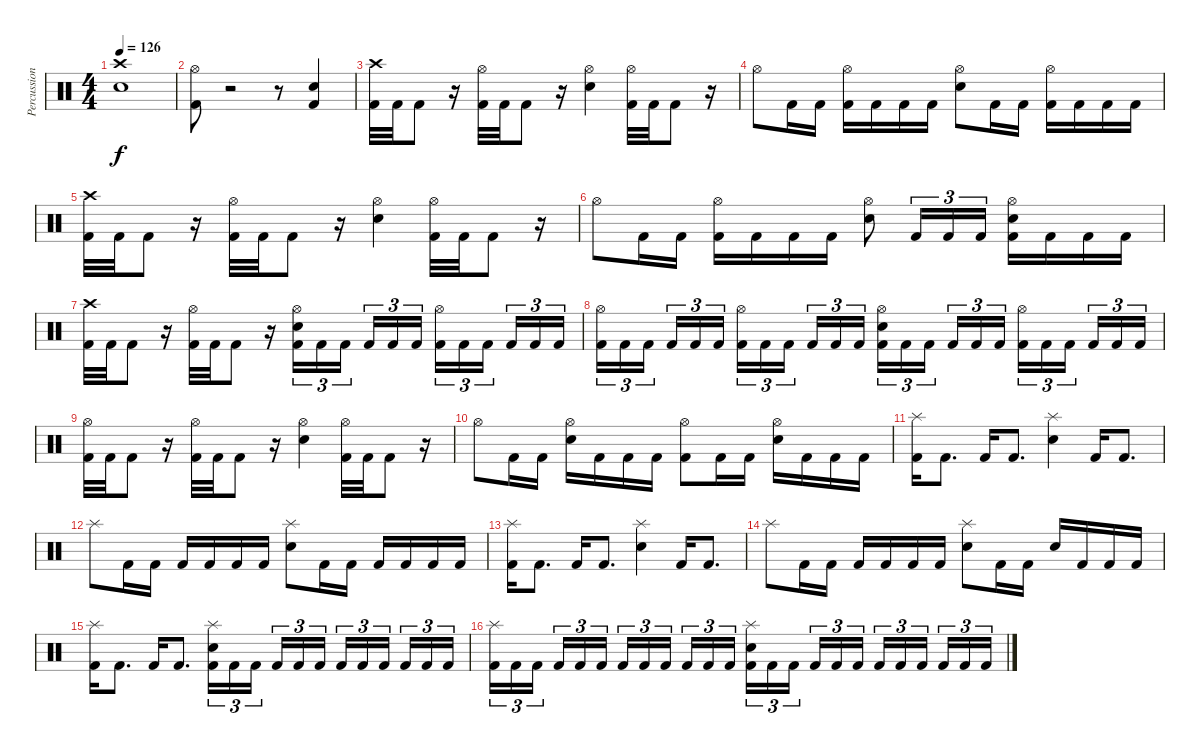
\track ("Percussion" "Percussion") {instrument percussion}
\staff {score}
\articulation defaults
\ts (4 4)
\tempo 126
\clef neutral
\ks c
("Crash high (hit)"{t} "Snare (hit)"{t}).1{dy f} |
("Hi-Hat (open)" "Kick (hit) 2").8 r.2 r.8 ("Electric Snare (hit)" "Kick (hit) 2").4 |
("Crash high (hit)" "Kick (hit) 2").32 "Kick (hit) 2".32 "Kick (hit) 2".8 r.16 ("Hi-Hat (open)" "Kick (hit) 2").32 "Kick (hit) 2".32 "Kick (hit) 2".8 r.16 ("Hi-Hat (open)" "Electric Snare (hit)").4 ("Hi-Hat (open)" "Kick (hit) 2").32 "Kick (hit) 2".32 "Kick (hit) 2".8 r.16 |
"Hi-Hat (open)".8 "Kick (hit) 2".16 "Kick (hit) 2".16 ("Hi-Hat (open)" "Kick (hit) 2").16 "Kick (hit) 2".16 "Kick (hit) 2".16 "Kick (hit) 2".16 ("Hi-Hat (open)" "Electric Snare (hit)").8 "Kick (hit) 2".16 "Kick (hit) 2".16 ("Hi-Hat (open)" "Kick (hit) 2").16 "Kick (hit) 2".16 "Kick (hit) 2".16 "Kick (hit) 2".16 |
("Crash high (hit)" "Kick (hit) 2").32 "Kick (hit) 2".32 "Kick (hit) 2".8 r.16 ("Hi-Hat (open)" "Kick (hit) 2").32 "Kick (hit) 2".32 "Kick (hit) 2".8 r.16 ("Hi-Hat (open)" "Electric Snare (hit)").4 ("Hi-Hat (open)" "Kick (hit) 2").32 "Kick (hit) 2".32 "Kick (hit) 2".8 r.16 |
"Hi-Hat (open)".8 "Kick (hit) 2".16 "Kick (hit) 2".16 ("Hi-Hat (open)" "Kick (hit) 2").16 "Kick (hit) 2".16 "Kick (hit) 2".16 "Kick (hit) 2".16 ("Hi-Hat (open)" "Electric Snare (hit)").8 "Kick (hit) 2".16{tu (3 2)} "Kick (hit) 2".16{tu (3 2)} "Kick (hit) 2".16{tu (3 2)} ("Hi-Hat (open)" "Electric Snare (hit)" "Kick (hit) 2").16 "Kick (hit) 2".16 "Kick (hit) 2".16 "Kick (hit) 2".16 |
("Crash high (hit)" "Kick (hit) 2").32 "Kick (hit) 2".32 "Kick (hit) 2".8 r.16 ("Hi-Hat (open)" "Kick (hit) 2").32 "Kick (hit) 2".32 "Kick (hit) 2".8 r.16 ("Hi-Hat (open)" "Electric Snare (hit)" "Kick (hit) 2").16{tu (3 2)} "Kick (hit) 2".16{tu (3 2)} "Kick (hit) 2".16{tu (3 2) beam splitsecondary} "Kick (hit) 2".16{tu (3 2)} "Kick (hit) 2".16{tu (3 2)} "Kick (hit) 2".16{tu (3 2)} ("Hi-Hat (open)" "Kick (hit) 2").16{tu (3 2)} "Kick (hit) 2".16{tu (3 2)} "Kick (hit) 2".16{tu (3 2) beam splitsecondary} "Kick (hit) 2".16{tu (3 2)} "Kick (hit) 2".16{tu (3 2)} "Kick (hit) 2".16{tu (3 2)} |
("Hi-Hat (open)" "Kick (hit) 2").16{tu (3 2)} "Kick (hit) 2".16{tu (3 2)} "Kick (hit) 2".16{tu (3 2) beam splitsecondary} "Kick (hit) 2".16{tu (3 2)} "Kick (hit) 2".16{tu (3 2)} "Kick (hit) 2".16{tu (3 2)} ("Hi-Hat (open)" "Kick (hit) 2").16{tu (3 2)} "Kick (hit) 2".16{tu (3 2)} "Kick (hit) 2".16{tu (3 2) beam splitsecondary} "Kick (hit) 2".16{tu (3 2)} "Kick (hit) 2".16{tu (3 2)} "Kick (hit) 2".16{tu (3 2)} ("Hi-Hat (open)" "Electric Snare (hit)" "Kick (hit) 2").16{tu (3 2)} "Kick (hit) 2".16{tu (3 2)} "Kick (hit) 2".16{tu (3 2) beam splitsecondary} "Kick (hit) 2".16{tu (3 2)} "Kick (hit) 2".16{tu (3 2)} "Kick (hit) 2".16{tu (3 2)} ("Hi-Hat (open)" "Kick (hit) 2").16{tu (3 2)} "Kick (hit) 2".16{tu (3 2)} "Kick (hit) 2".16{tu (3 2) beam splitsecondary} "Kick (hit) 2".16{tu (3 2)} "Kick (hit) 2".16{tu (3 2)} "Kick (hit) 2".16{tu (3 2)} |
("Hi-Hat (open)" "Kick (hit) 2").32 "Kick (hit) 2".32 "Kick (hit) 2".8 r.16 ("Hi-Hat (open)" "Kick (hit) 2").32 "Kick (hit) 2".32 "Kick (hit) 2".8 r.16 ("Hi-Hat (open)" "Electric Snare (hit)").4 ("Hi-Hat (open)" "Kick (hit) 2").32 "Kick (hit) 2".32 "Kick (hit) 2".8 r.16 |
"Hi-Hat (open)".8 "Kick (hit) 2".16 "Kick (hit) 2".16 ("Hi-Hat (open)" "Electric Snare (hit)").16 "Kick (hit) 2".16 "Kick (hit) 2".16 "Kick (hit) 2".16 ("Hi-Hat (open)" "Kick (hit) 2").8 "Kick (hit) 2".16 "Kick (hit) 2".16 ("Hi-Hat (open)" "Electric Snare (hit)").16 "Kick (hit) 2".16 "Kick (hit) 2".16 "Kick (hit) 2".16 |
("Splash (hit)" "Kick (hit) 2").16 "Kick (hit) 2".8{d} "Kick (hit) 2".16 "Kick (hit) 2".8{d} ("Splash (hit)" "Electric Snare (hit)").4 "Kick (hit) 2".16 "Kick (hit) 2".8{d} |
"Splash (hit)".8 "Kick (hit) 2".16 "Kick (hit) 2".16 "Kick (hit) 2".16 "Kick (hit) 2".16 "Kick (hit) 2".16 "Kick (hit) 2".16 ("Splash (hit)" "Electric Snare (hit)").8 "Kick (hit) 2".16 "Kick (hit) 2".16 "Kick (hit) 2".16 "Kick (hit) 2".16 "Kick (hit) 2".16 "Kick (hit) 2".16 |
("Splash (hit)" "Kick (hit) 2").16 "Kick (hit) 2".8{d} "Kick (hit) 2".16 "Kick (hit) 2".8{d} ("Splash (hit)" "Electric Snare (hit)").4 "Kick (hit) 2".16 "Kick (hit) 2".8{d} |
"Splash (hit)".8 "Kick (hit) 2".16 "Kick (hit) 2".16 "Kick (hit) 2".16 "Kick (hit) 2".16 "Kick (hit) 2".16 "Kick (hit) 2".16 ("Splash (hit)" "Electric Snare (hit)").8 "Kick (hit) 2".16 "Kick (hit) 2".16 "Electric Snare (hit)".16 "Kick (hit) 2".16 "Kick (hit) 2".16 "Kick (hit) 2".16 |
("Splash (hit)" "Kick (hit) 2").16 "Kick (hit) 2".8{d} "Kick (hit) 2".16 "Kick (hit) 2".8{d} ("Splash (hit)" "Electric Snare (hit)" "Kick (hit) 2").16{tu (3 2)} "Kick (hit) 2".16{tu (3 2)} "Kick (hit) 2".16{tu (3 2) beam splitsecondary} "Kick (hit) 2".16{tu (3 2)} "Kick (hit) 2".16{tu (3 2)} "Kick (hit) 2".16{tu (3 2)} "Kick (hit) 2".16{tu (3 2)} "Kick (hit) 2".16{tu (3 2)} "Kick (hit) 2".16{tu (3 2) beam splitsecondary} "Kick (hit) 2".16{tu (3 2)} "Kick (hit) 2".16{tu (3 2)} "Kick (hit) 2".16{tu (3 2)} |
("Splash (hit)" "Kick (hit) 2").16{tu (3 2)} "Kick (hit) 2".16{tu (3 2)} "Kick (hit) 2".16{tu (3 2) beam splitsecondary} "Kick (hit) 2".16{tu (3 2)} "Kick (hit) 2".16{tu (3 2)} "Kick (hit) 2".16{tu (3 2)} "Kick (hit) 2".16{tu (3 2)} "Kick (hit) 2".16{tu (3 2)} "Kick (hit) 2".16{tu (3 2) beam splitsecondary} "Kick (hit) 2".16{tu (3 2)} "Kick (hit) 2".16{tu (3 2)} "Kick (hit) 2".16{tu (3 2)} ("Splash (hit)" "Electric Snare (hit)" "Kick (hit) 2").16{tu (3 2)} "Kick (hit) 2".16{tu (3 2)} "Kick (hit) 2".16{tu (3 2) beam splitsecondary} "Kick (hit) 2".16{tu (3 2)} "Kick (hit) 2".16{tu (3 2)} "Kick (hit) 2".16{tu (3 2)} "Kick (hit) 2".16{tu (3 2)} "Kick (hit) 2".16{tu (3 2)} "Kick (hit) 2".16{tu (3 2) beam splitsecondary} "Kick (hit) 2".16{tu (3 2)} "Kick (hit) 2".16{tu (3 2)} "Kick (hit) 2".16{tu (3 2)}
